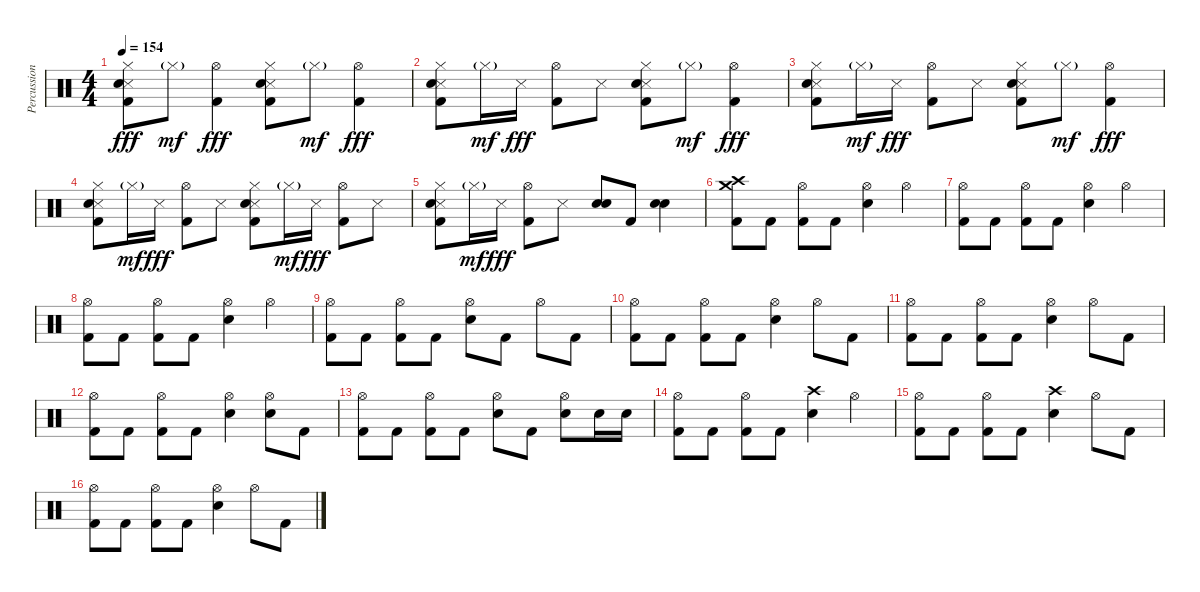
\track ("Percussion" "Percussion") {instrument percussion}
\staff {score}
\articulation defaults
\ts (4 4)
\tempo 154
\clef neutral
\ks c
("Hi-Hat (closed)" "Kick (hit) 2" "Snare (side stick) 3" "Electric Snare (hit)").8{dy fff} "Hi-Hat (closed)"{g}.8{dy mf} ("Hi-Hat (open)" "Kick (hit) 2").4{dy fff} ("Hi-Hat (closed)" "Kick (hit) 2" "Snare (side stick) 3" "Electric Snare (hit)").8 "Hi-Hat (closed)"{g}.8{dy mf} ("Hi-Hat (open)" "Kick (hit) 2").4{dy fff} |
("Hi-Hat (closed)" "Kick (hit) 2" "Snare (side stick) 3" "Electric Snare (hit)").8 "Hi-Hat (closed)"{g}.16{dy mf} "Snare (side stick) 3".16{dy fff} ("Hi-Hat (open)" "Kick (hit) 2").8 "Snare (side stick) 3".8 ("Hi-Hat (closed)" "Kick (hit) 2" "Snare (side stick) 3" "Electric Snare (hit)").8 "Hi-Hat (closed)"{g}.8{dy mf} ("Hi-Hat (open)" "Kick (hit) 2").4{dy fff} |
("Hi-Hat (closed)" "Kick (hit) 2" "Snare (side stick) 3" "Electric Snare (hit)").8 "Hi-Hat (closed)"{g}.16{dy mf} "Snare (side stick) 3".16{dy fff} ("Hi-Hat (open)" "Kick (hit) 2").8 "Snare (side stick) 3".8 ("Hi-Hat (closed)" "Kick (hit) 2" "Snare (side stick) 3" "Electric Snare (hit)").8 "Hi-Hat (closed)"{g}.8{dy mf} ("Hi-Hat (open)" "Kick (hit) 2").4{dy fff} |
("Hi-Hat (closed)" "Kick (hit) 2" "Snare (side stick) 3" "Electric Snare (hit)").8 "Hi-Hat (closed)"{g}.16{dy mf} "Snare (side stick) 3".16{dy fff} ("Hi-Hat (open)" "Kick (hit) 2").8 "Snare (side stick) 3".8 ("Hi-Hat (closed)" "Kick (hit) 2" "Snare (side stick) 3" "Electric Snare (hit)").8 "Hi-Hat (closed)"{g}.16{dy mf} "Snare (side stick) 3".16{dy fff} ("Hi-Hat (open)" "Kick (hit) 2").8 "Snare (side stick) 3".8 |
("Hi-Hat (closed)" "Kick (hit) 2" "Snare (side stick) 3" "Electric Snare (hit)").8 "Hi-Hat (closed)"{g}.16{dy mf} "Snare (side stick) 3".16{dy fff} ("Hi-Hat (open)" "Kick (hit) 2").8 "Snare (side stick) 3".8 ("Electric Snare (hit)" "Electric Snare (hit)").8{bd 240} "Kick (hit) 2".8 ("Electric Snare (hit)" "Electric Snare (hit)").4{bd 240} |
("Crash medium (hit)" "Crash high (hit)" "Kick (hit) 2").8 "Kick (hit) 2".8 ("Hi-Hat (open)" "Kick (hit) 2").8 "Kick (hit) 2".8 ("Hi-Hat (open)" "Electric Snare (hit)").4 "Hi-Hat (open)".4 |
("Hi-Hat (open)" "Kick (hit) 2").8 "Kick (hit) 2".8 ("Hi-Hat (open)" "Kick (hit) 2").8 "Kick (hit) 2".8 ("Hi-Hat (open)" "Electric Snare (hit)").4 "Hi-Hat (open)".4 |
("Hi-Hat (open)" "Kick (hit) 2").8 "Kick (hit) 2".8 ("Hi-Hat (open)" "Kick (hit) 2").8 "Kick (hit) 2".8 ("Hi-Hat (open)" "Electric Snare (hit)").4 "Hi-Hat (open)".4 |
("Hi-Hat (open)" "Kick (hit) 2").8 "Kick (hit) 2".8 ("Hi-Hat (open)" "Kick (hit) 2").8 "Kick (hit) 2".8 ("Hi-Hat (open)" "Electric Snare (hit)").8 "Kick (hit) 2".8 "Hi-Hat (open)".8 "Kick (hit) 2".8 |
("Hi-Hat (open)" "Kick (hit) 2").8 "Kick (hit) 2".8 ("Hi-Hat (open)" "Kick (hit) 2").8 "Kick (hit) 2".8 ("Hi-Hat (open)" "Electric Snare (hit)").4 "Hi-Hat (open)".8 "Kick (hit) 2".8 |
("Hi-Hat (open)" "Kick (hit) 2").8 "Kick (hit) 2".8 ("Hi-Hat (open)" "Kick (hit) 2").8 "Kick (hit) 2".8 ("Hi-Hat (open)" "Electric Snare (hit)").4 "Hi-Hat (open)".8 "Kick (hit) 2".8 |
("Hi-Hat (open)" "Kick (hit) 2").8 "Kick (hit) 2".8 ("Hi-Hat (open)" "Kick (hit) 2").8 "Kick (hit) 2".8 ("Hi-Hat (open)" "Electric Snare (hit)").4 ("Hi-Hat (open)" "Electric Snare (hit)").8 "Kick (hit) 2".8 |
("Hi-Hat (open)" "Kick (hit) 2").8 "Kick (hit) 2".8 ("Hi-Hat (open)" "Kick (hit) 2").8 "Kick (hit) 2".8 ("Hi-Hat (open)" "Electric Snare (hit)").8 "Kick (hit) 2".8 ("Hi-Hat (open)" "Electric Snare (hit)").8 "Electric Snare (hit)".16 "Electric Snare (hit)".16 |
("Hi-Hat (open)" "Kick (hit) 2").8 "Kick (hit) 2".8 ("Hi-Hat (open)" "Kick (hit) 2").8 "Kick (hit) 2".8 ("Crash high (hit)" "Electric Snare (hit)").4 "Hi-Hat (open)".4 |
("Hi-Hat (open)" "Kick (hit) 2").8 "Kick (hit) 2".8 ("Hi-Hat (open)" "Kick (hit) 2").8 "Kick (hit) 2".8 ("Crash high (hit)" "Electric Snare (hit)").4 "Hi-Hat (open)".8 "Kick (hit) 2".8 |
("Hi-Hat (open)" "Kick (hit) 2").8 "Kick (hit) 2".8 ("Hi-Hat (open)" "Kick (hit) 2").8 "Kick (hit) 2".8 ("Hi-Hat (open)" "Electric Snare (hit)").4 "Hi-Hat (open)".8 "Kick (hit) 2".8
